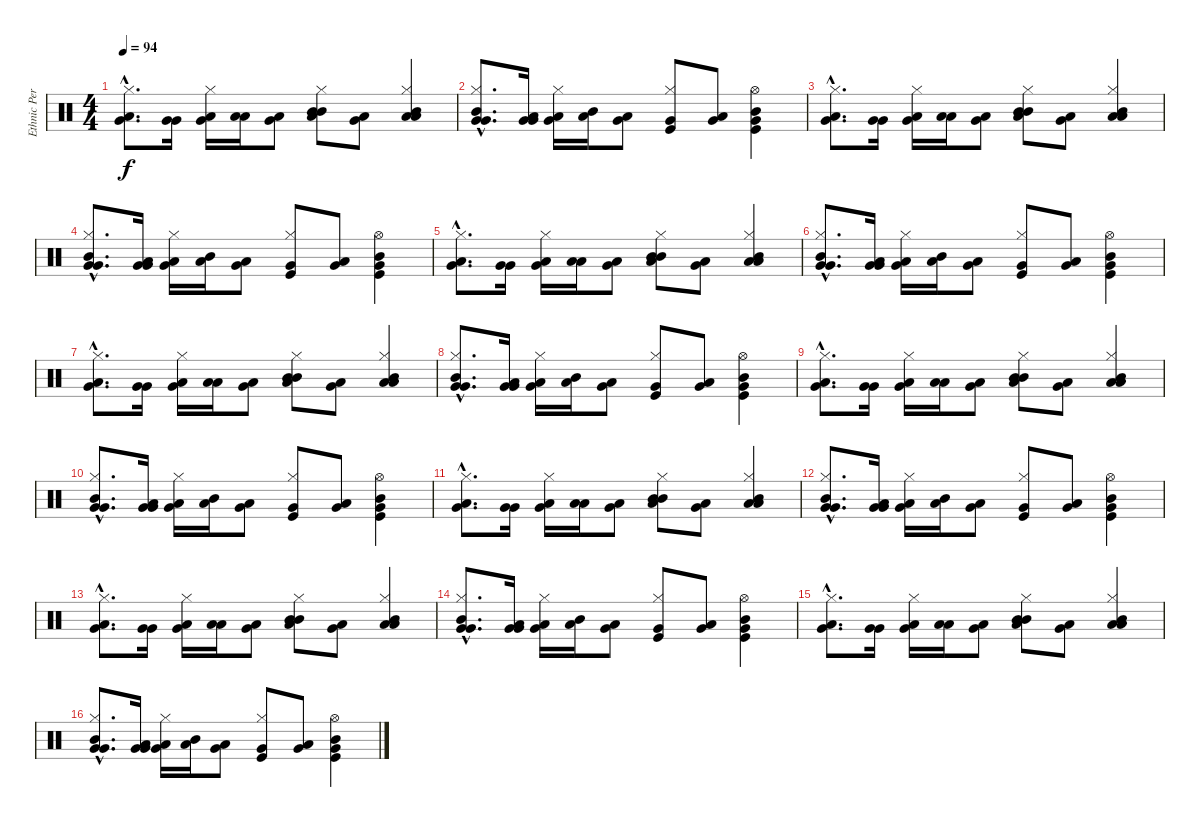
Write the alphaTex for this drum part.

\track ("Ethnic Percussion" "Ethnic Per") {instrument percussion}
\staff {score}
\articulation defaults
\ts (4 4)
\tempo 94
\clef neutral
\ks c
("Very Low Tom (hit)"{hac} "Low Floor Tom (hit)"{hac} "Hi-Hat (closed)"{hac}).8{d dy f} ("Very Low Tom (hit)" "Very Low Tom (hit)").16 ("Very Low Tom (hit)" "Low Floor Tom (hit)" "Hi-Hat (closed)").16 ("Low Tom (hit)" "Low Tom (hit)").16 ("Very Low Tom (hit)" "Low Floor Tom (hit)").8 ("Mid Tom (hit)" "Low Tom (hit)" "Mid Tom (hit)" "Hi-Hat (closed)").8 ("Low Tom (hit)" "Very Low Tom (hit)").8 ("Mid Tom (hit)" "Low Floor Tom (hit)" "Low Tom (hit)" "Hi-Hat (closed)").4 |
("Very Low Tom (hit)"{hac} "Very Low Tom (hit)"{hac} "Mid Tom (hit)"{hac} "Hi-Hat (closed)"{hac}).8{d} ("Very Low Tom (hit)" "Very Low Tom (hit)" "Low Floor Tom (hit)").16 ("Very Low Tom (hit)" "Low Floor Tom (hit)" "Hi-Hat (closed)").16 ("Mid Tom (hit)" "Low Tom (hit)").16 ("Very Low Tom (hit)" "Low Tom (hit)").8 ("Kick (hit)" "Very Low Tom (hit)" "Hi-Hat (closed)").8 ("Low Tom (hit)" "Very Low Tom (hit)").8 ("Very Low Tom (hit)" "Kick (hit)" "Hi-Hat (open)" "Mid Tom (hit)").4 |
("Very Low Tom (hit)"{hac} "Low Floor Tom (hit)"{hac} "Hi-Hat (closed)"{hac}).8{d} ("Very Low Tom (hit)" "Very Low Tom (hit)").16 ("Very Low Tom (hit)" "Low Floor Tom (hit)" "Hi-Hat (closed)").16 ("Low Tom (hit)" "Low Tom (hit)").16 ("Very Low Tom (hit)" "Low Floor Tom (hit)").8 ("Mid Tom (hit)" "Low Tom (hit)" "Mid Tom (hit)" "Hi-Hat (closed)").8 ("Low Tom (hit)" "Very Low Tom (hit)").8 ("Mid Tom (hit)" "Low Floor Tom (hit)" "Low Tom (hit)" "Hi-Hat (closed)").4 |
("Very Low Tom (hit)"{hac} "Very Low Tom (hit)"{hac} "Mid Tom (hit)"{hac} "Hi-Hat (closed)"{hac}).8{d} ("Very Low Tom (hit)" "Very Low Tom (hit)" "Low Floor Tom (hit)").16 ("Very Low Tom (hit)" "Low Floor Tom (hit)" "Hi-Hat (closed)").16 ("Mid Tom (hit)" "Low Tom (hit)").16 ("Very Low Tom (hit)" "Low Tom (hit)").8 ("Kick (hit)" "Very Low Tom (hit)" "Hi-Hat (closed)").8 ("Low Tom (hit)" "Very Low Tom (hit)").8 ("Very Low Tom (hit)" "Kick (hit)" "Hi-Hat (open)" "Mid Tom (hit)").4 |
("Very Low Tom (hit)"{hac} "Low Floor Tom (hit)"{hac} "Hi-Hat (closed)"{hac}).8{d} ("Very Low Tom (hit)" "Very Low Tom (hit)").16 ("Very Low Tom (hit)" "Low Floor Tom (hit)" "Hi-Hat (closed)").16 ("Low Tom (hit)" "Low Tom (hit)").16 ("Very Low Tom (hit)" "Low Floor Tom (hit)").8 ("Mid Tom (hit)" "Low Tom (hit)" "Mid Tom (hit)" "Hi-Hat (closed)").8 ("Low Tom (hit)" "Very Low Tom (hit)").8 ("Mid Tom (hit)" "Low Floor Tom (hit)" "Low Tom (hit)" "Hi-Hat (closed)").4 |
("Very Low Tom (hit)"{hac} "Very Low Tom (hit)"{hac} "Mid Tom (hit)"{hac} "Hi-Hat (closed)"{hac}).8{d} ("Very Low Tom (hit)" "Very Low Tom (hit)" "Low Floor Tom (hit)").16 ("Very Low Tom (hit)" "Low Floor Tom (hit)" "Hi-Hat (closed)").16 ("Mid Tom (hit)" "Low Tom (hit)").16 ("Very Low Tom (hit)" "Low Tom (hit)").8 ("Kick (hit)" "Very Low Tom (hit)" "Hi-Hat (closed)").8 ("Low Tom (hit)" "Very Low Tom (hit)").8 ("Very Low Tom (hit)" "Kick (hit)" "Hi-Hat (open)" "Mid Tom (hit)").4 |
("Very Low Tom (hit)"{hac} "Low Floor Tom (hit)"{hac} "Hi-Hat (closed)"{hac}).8{d} ("Very Low Tom (hit)" "Very Low Tom (hit)").16 ("Very Low Tom (hit)" "Low Floor Tom (hit)" "Hi-Hat (closed)").16 ("Low Tom (hit)" "Low Tom (hit)").16 ("Very Low Tom (hit)" "Low Floor Tom (hit)").8 ("Mid Tom (hit)" "Low Tom (hit)" "Mid Tom (hit)" "Hi-Hat (closed)").8 ("Low Tom (hit)" "Very Low Tom (hit)").8 ("Mid Tom (hit)" "Low Floor Tom (hit)" "Low Tom (hit)" "Hi-Hat (closed)").4 |
("Very Low Tom (hit)"{hac} "Very Low Tom (hit)"{hac} "Mid Tom (hit)"{hac} "Hi-Hat (closed)"{hac}).8{d} ("Very Low Tom (hit)" "Very Low Tom (hit)" "Low Floor Tom (hit)").16 ("Very Low Tom (hit)" "Low Floor Tom (hit)" "Hi-Hat (closed)").16 ("Mid Tom (hit)" "Low Tom (hit)").16 ("Very Low Tom (hit)" "Low Tom (hit)").8 ("Kick (hit)" "Very Low Tom (hit)" "Hi-Hat (closed)").8 ("Low Tom (hit)" "Very Low Tom (hit)").8 ("Very Low Tom (hit)" "Kick (hit)" "Hi-Hat (open)" "Mid Tom (hit)").4 |
("Very Low Tom (hit)"{hac} "Low Floor Tom (hit)"{hac} "Hi-Hat (closed)"{hac}).8{d} ("Very Low Tom (hit)" "Very Low Tom (hit)").16 ("Very Low Tom (hit)" "Low Floor Tom (hit)" "Hi-Hat (closed)").16 ("Low Tom (hit)" "Low Tom (hit)").16 ("Very Low Tom (hit)" "Low Floor Tom (hit)").8 ("Mid Tom (hit)" "Low Tom (hit)" "Mid Tom (hit)" "Hi-Hat (closed)").8 ("Low Tom (hit)" "Very Low Tom (hit)").8 ("Mid Tom (hit)" "Low Floor Tom (hit)" "Low Tom (hit)" "Hi-Hat (closed)").4 |
("Very Low Tom (hit)"{hac} "Very Low Tom (hit)"{hac} "Mid Tom (hit)"{hac} "Hi-Hat (closed)"{hac}).8{d} ("Very Low Tom (hit)" "Very Low Tom (hit)" "Low Floor Tom (hit)").16 ("Very Low Tom (hit)" "Low Floor Tom (hit)" "Hi-Hat (closed)").16 ("Mid Tom (hit)" "Low Tom (hit)").16 ("Very Low Tom (hit)" "Low Tom (hit)").8 ("Kick (hit)" "Very Low Tom (hit)" "Hi-Hat (closed)").8 ("Low Tom (hit)" "Very Low Tom (hit)").8 ("Very Low Tom (hit)" "Kick (hit)" "Hi-Hat (open)" "Mid Tom (hit)").4 |
("Very Low Tom (hit)"{hac} "Low Floor Tom (hit)"{hac} "Hi-Hat (closed)"{hac}).8{d} ("Very Low Tom (hit)" "Very Low Tom (hit)").16 ("Very Low Tom (hit)" "Low Floor Tom (hit)" "Hi-Hat (closed)").16 ("Low Tom (hit)" "Low Tom (hit)").16 ("Very Low Tom (hit)" "Low Floor Tom (hit)").8 ("Mid Tom (hit)" "Low Tom (hit)" "Mid Tom (hit)" "Hi-Hat (closed)").8 ("Low Tom (hit)" "Very Low Tom (hit)").8 ("Mid Tom (hit)" "Low Floor Tom (hit)" "Low Tom (hit)" "Hi-Hat (closed)").4 |
("Very Low Tom (hit)"{hac} "Very Low Tom (hit)"{hac} "Mid Tom (hit)"{hac} "Hi-Hat (closed)"{hac}).8{d} ("Very Low Tom (hit)" "Very Low Tom (hit)" "Low Floor Tom (hit)").16 ("Very Low Tom (hit)" "Low Floor Tom (hit)" "Hi-Hat (closed)").16 ("Mid Tom (hit)" "Low Tom (hit)").16 ("Very Low Tom (hit)" "Low Tom (hit)").8 ("Kick (hit)" "Very Low Tom (hit)" "Hi-Hat (closed)").8 ("Low Tom (hit)" "Very Low Tom (hit)").8 ("Very Low Tom (hit)" "Kick (hit)" "Hi-Hat (open)" "Mid Tom (hit)").4 |
("Very Low Tom (hit)"{hac} "Low Floor Tom (hit)"{hac} "Hi-Hat (closed)"{hac}).8{d} ("Very Low Tom (hit)" "Very Low Tom (hit)").16 ("Very Low Tom (hit)" "Low Floor Tom (hit)" "Hi-Hat (closed)").16 ("Low Tom (hit)" "Low Tom (hit)").16 ("Very Low Tom (hit)" "Low Floor Tom (hit)").8 ("Mid Tom (hit)" "Low Tom (hit)" "Mid Tom (hit)" "Hi-Hat (closed)").8 ("Low Tom (hit)" "Very Low Tom (hit)").8 ("Mid Tom (hit)" "Low Floor Tom (hit)" "Low Tom (hit)" "Hi-Hat (closed)").4 |
("Very Low Tom (hit)"{hac} "Very Low Tom (hit)"{hac} "Mid Tom (hit)"{hac} "Hi-Hat (closed)"{hac}).8{d} ("Very Low Tom (hit)" "Very Low Tom (hit)" "Low Floor Tom (hit)").16 ("Very Low Tom (hit)" "Low Floor Tom (hit)" "Hi-Hat (closed)").16 ("Mid Tom (hit)" "Low Tom (hit)").16 ("Very Low Tom (hit)" "Low Tom (hit)").8 ("Kick (hit)" "Very Low Tom (hit)" "Hi-Hat (closed)").8 ("Low Tom (hit)" "Very Low Tom (hit)").8 ("Very Low Tom (hit)" "Kick (hit)" "Hi-Hat (open)" "Mid Tom (hit)").4 |
("Very Low Tom (hit)"{hac} "Low Floor Tom (hit)"{hac} "Hi-Hat (closed)"{hac}).8{d} ("Very Low Tom (hit)" "Very Low Tom (hit)").16 ("Very Low Tom (hit)" "Low Floor Tom (hit)" "Hi-Hat (closed)").16 ("Low Tom (hit)" "Low Tom (hit)").16 ("Very Low Tom (hit)" "Low Floor Tom (hit)").8 ("Mid Tom (hit)" "Low Tom (hit)" "Mid Tom (hit)" "Hi-Hat (closed)").8 ("Low Tom (hit)" "Very Low Tom (hit)").8 ("Mid Tom (hit)" "Low Floor Tom (hit)" "Low Tom (hit)" "Hi-Hat (closed)").4 |
("Very Low Tom (hit)"{hac} "Very Low Tom (hit)"{hac} "Mid Tom (hit)"{hac} "Hi-Hat (closed)"{hac}).8{d} ("Very Low Tom (hit)" "Very Low Tom (hit)" "Low Floor Tom (hit)").16 ("Very Low Tom (hit)" "Low Floor Tom (hit)" "Hi-Hat (closed)").16 ("Mid Tom (hit)" "Low Tom (hit)").16 ("Very Low Tom (hit)" "Low Tom (hit)").8 ("Kick (hit)" "Very Low Tom (hit)" "Hi-Hat (closed)").8 ("Low Tom (hit)" "Very Low Tom (hit)").8 ("Very Low Tom (hit)" "Kick (hit)" "Hi-Hat (open)" "Mid Tom (hit)").4
